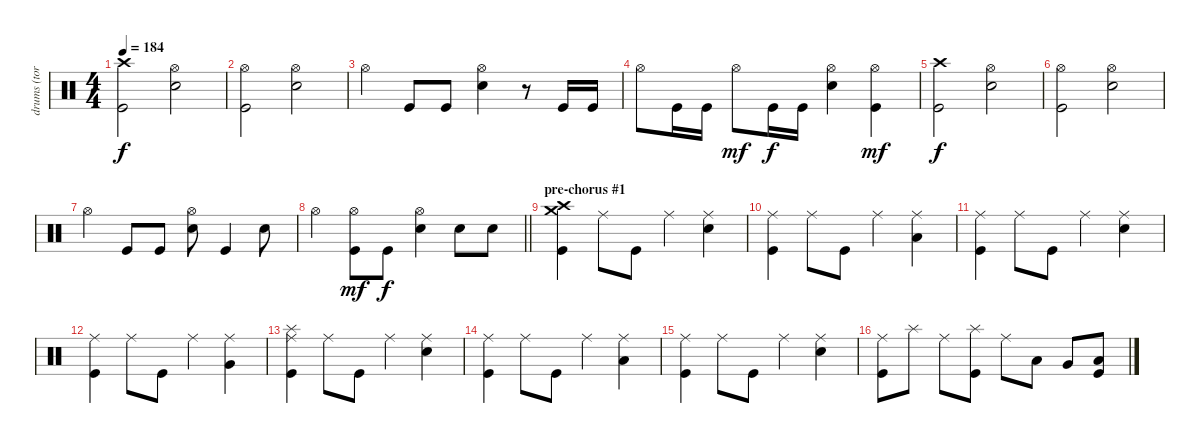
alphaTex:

\track ("drums (tora)" "drums (tor") {instrument percussion}
\staff {score}
\articulation defaults
\ts (4 4)
\tempo 184
\clef neutral
\ks c
("Crash high (hit)" "Kick (hit)").2{dy f} ("Hi-Hat (open)" "Snare (hit) 2").2 |
("Hi-Hat (open)" "Kick (hit)").2 ("Hi-Hat (open)" "Snare (hit) 2").2 |
"Hi-Hat (open)".4 "Kick (hit)".8 "Kick (hit)".8 ("Hi-Hat (open)" "Snare (hit) 2").4 r.8 "Kick (hit)".16 "Kick (hit)".16 |
"Hi-Hat (open)".8 "Kick (hit)".16 "Kick (hit)".16 "Hi-Hat (open)".8{dy mf} "Kick (hit)".16{dy f} "Kick (hit)".16 ("Hi-Hat (open)" "Snare (hit) 2").4 ("Hi-Hat (open)" "Kick (hit)").4{dy mf} |
("Crash high (hit)" "Kick (hit)").2{dy f} ("Hi-Hat (open)" "Snare (hit) 2").2 |
("Hi-Hat (open)" "Kick (hit)").2 ("Hi-Hat (open)" "Snare (hit) 2").2 |
"Hi-Hat (open)".4 "Kick (hit)".8 "Kick (hit)".8 ("Hi-Hat (open)" "Snare (hit) 2").8 "Kick (hit)".4 "Snare (hit) 2".8 |
\barLineRight lightlight "Hi-Hat (open)".4
("Hi-Hat (open)" "Kick (hit)").8{dy mf} "Kick (hit)".8{dy f} ("Hi-Hat (open)" "Snare (hit) 2").4 "Snare (hit) 2".8 "Snare (hit) 2".8 |
\section ("" "pre-chorus #1")
("Crash high (hit)" "Crash medium (hit)" "Kick (hit)").4 "Ride (middle)".8 "Kick (hit)".8 "Ride (middle)".4 ("Ride (middle)" "Snare (hit) 2").4 |
("Ride (middle)" "Kick (hit)").4 "Ride (middle)".8 "Kick (hit)".8 "Ride (middle)".4 ("Ride (middle)" "Low Tom (hit)").4 |
("Ride (middle)" "Kick (hit)").4 "Ride (middle)".8 "Kick (hit)".8 "Ride (middle)".4 ("Ride (middle)" "Snare (hit) 2").4 |
("Ride (middle)" "Kick (hit)").4 "Ride (middle)".8 "Kick (hit)".8 "Ride (middle)".4 ("Ride (middle)" "Very Low Tom (hit)").4 |
("Splash (hit)" "Ride (middle)" "Kick (hit)").4 "Ride (middle)".8 "Kick (hit)".8 "Ride (middle)".4 ("Ride (middle)" "Snare (hit) 2").4 |
("Ride (middle)" "Kick (hit)").4 "Ride (middle)".8 "Kick (hit)".8 "Ride (middle)".4 ("Ride (middle)" "Low Tom (hit)").4 |
("Ride (middle)" "Kick (hit)").4 "Ride (middle)".8 "Kick (hit)".8 "Ride (middle)".4 ("Ride (middle)" "Snare (hit) 2").4 |
("Ride (middle)" "Kick (hit)").8 "Splash (hit)".8 "Ride (middle)".8 ("Splash (hit)" "Kick (hit)").8 "Ride (middle)".8 "Low Tom (hit)".8 "Very Low Tom (hit)".8 ("Low Floor Tom (hit)" "Kick (hit)").8
